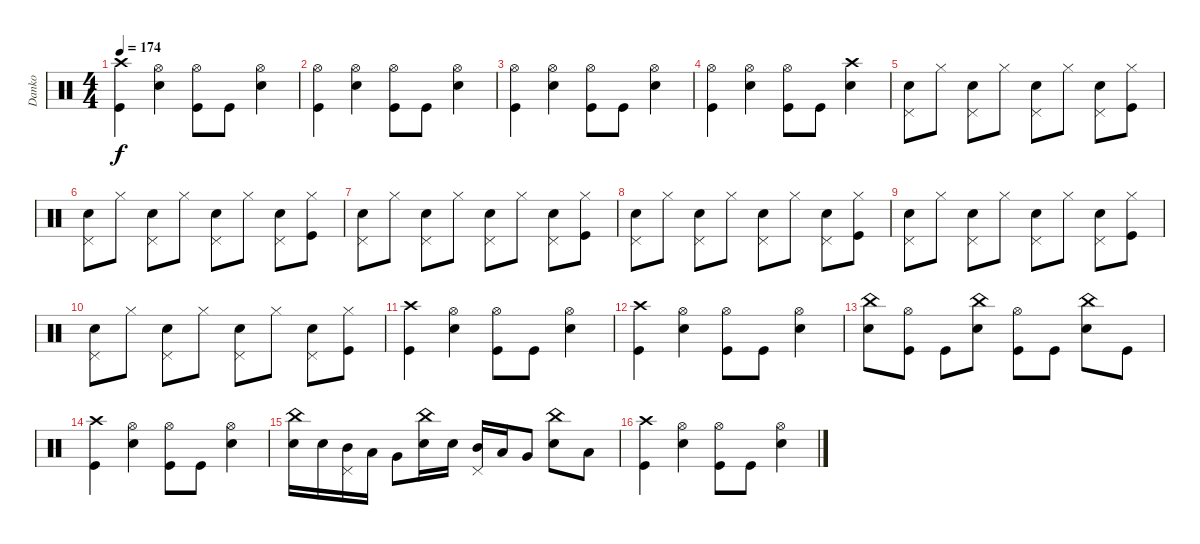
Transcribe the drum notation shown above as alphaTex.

\track ("Danko" "Danko") {instrument percussion}
\staff {score}
\articulation defaults
\ts (4 4)
\tempo 174
\clef neutral
\ks c
("Crash high (hit)" "Kick (hit)").4{dy f} ("Hi-Hat (open)" "Snare (hit) 2").4 ("Hi-Hat (open)" "Kick (hit)").8 "Kick (hit)".8 ("Hi-Hat (open)" "Snare (hit) 2").4 |
("Hi-Hat (open)" "Kick (hit)").4 ("Hi-Hat (open)" "Snare (hit) 2").4 ("Hi-Hat (open)" "Kick (hit)").8 "Kick (hit)".8 ("Hi-Hat (open)" "Snare (hit) 2").4 |
("Hi-Hat (open)" "Kick (hit)").4 ("Hi-Hat (open)" "Snare (hit) 2").4 ("Hi-Hat (open)" "Kick (hit)").8 "Kick (hit)".8 ("Hi-Hat (open)" "Snare (hit) 2").4 |
("Hi-Hat (open)" "Kick (hit)").4 ("Hi-Hat (open)" "Snare (hit) 2").4 ("Hi-Hat (open)" "Kick (hit)").8 "Kick (hit)".8 ("Crash high (hit)" "Snare (hit) 2").4 |
("Pedal Hi-Hat (hit)" "Snare (hit) 2").8 "Hi-Hat (closed)".8 ("Pedal Hi-Hat (hit)" "Snare (hit) 2").8 "Hi-Hat (closed)".8 ("Pedal Hi-Hat (hit)" "Snare (hit) 2").8 "Hi-Hat (closed)".8 ("Pedal Hi-Hat (hit)" "Snare (hit) 2").8 ("Hi-Hat (closed)" "Kick (hit)").8 |
("Pedal Hi-Hat (hit)" "Snare (hit) 2").8 "Hi-Hat (closed)".8 ("Pedal Hi-Hat (hit)" "Snare (hit) 2").8 "Hi-Hat (closed)".8 ("Pedal Hi-Hat (hit)" "Snare (hit) 2").8 "Hi-Hat (closed)".8 ("Pedal Hi-Hat (hit)" "Snare (hit) 2").8 ("Hi-Hat (closed)" "Kick (hit)").8 |
("Pedal Hi-Hat (hit)" "Snare (hit) 2").8 "Hi-Hat (closed)".8 ("Pedal Hi-Hat (hit)" "Snare (hit) 2").8 "Hi-Hat (closed)".8 ("Pedal Hi-Hat (hit)" "Snare (hit) 2").8 "Hi-Hat (closed)".8 ("Pedal Hi-Hat (hit)" "Snare (hit) 2").8 ("Hi-Hat (closed)" "Kick (hit)").8 |
("Pedal Hi-Hat (hit)" "Snare (hit) 2").8 "Hi-Hat (closed)".8 ("Pedal Hi-Hat (hit)" "Snare (hit) 2").8 "Hi-Hat (closed)".8 ("Pedal Hi-Hat (hit)" "Snare (hit) 2").8 "Hi-Hat (closed)".8 ("Pedal Hi-Hat (hit)" "Snare (hit) 2").8 ("Hi-Hat (closed)" "Kick (hit)").8 |
("Pedal Hi-Hat (hit)" "Snare (hit) 2").8 "Hi-Hat (closed)".8 ("Pedal Hi-Hat (hit)" "Snare (hit) 2").8 "Hi-Hat (closed)".8 ("Pedal Hi-Hat (hit)" "Snare (hit) 2").8 "Hi-Hat (closed)".8 ("Pedal Hi-Hat (hit)" "Snare (hit) 2").8 ("Hi-Hat (closed)" "Kick (hit)").8 |
("Pedal Hi-Hat (hit)" "Snare (hit) 2").8 "Hi-Hat (closed)".8 ("Pedal Hi-Hat (hit)" "Snare (hit) 2").8 "Hi-Hat (closed)".8 ("Pedal Hi-Hat (hit)" "Snare (hit) 2").8 "Hi-Hat (closed)".8 ("Pedal Hi-Hat (hit)" "Snare (hit) 2").8 ("Hi-Hat (closed)" "Kick (hit)").8 |
("Crash high (hit)" "Kick (hit)").4 ("Hi-Hat (open)" "Snare (hit) 2").4 ("Hi-Hat (open)" "Kick (hit)").8 "Kick (hit)".8 ("Hi-Hat (open)" "Snare (hit) 2").4 |
("Crash high (hit)" "Kick (hit)").4 ("Hi-Hat (open)" "Snare (hit) 2").4 ("Hi-Hat (open)" "Kick (hit)").8 "Kick (hit)".8 ("Hi-Hat (open)" "Snare (hit) 2").4 |
("Snare (hit) 2" "China (hit)").8 ("Kick (hit)" "Hi-Hat (open)").8 "Kick (hit)".8 ("Snare (hit) 2" "China (hit)").8 ("Kick (hit)" "Hi-Hat (open)").8 "Kick (hit)".8 ("Snare (hit) 2" "China (hit)").8 "Kick (hit)".8 |
("Crash high (hit)" "Kick (hit)").4 ("Hi-Hat (open)" "Snare (hit) 2").4 ("Hi-Hat (open)" "Kick (hit)").8 "Kick (hit)".8 ("Hi-Hat (open)" "Snare (hit) 2").4 |
("Snare (hit) 2" "China (hit)").16 "Snare (hit) 2".16 ("Pedal Hi-Hat (hit)" "Mid Tom (hit)").16 "Low Tom (hit)".16 "Very Low Tom (hit)".8 ("Snare (hit) 2" "China (hit)").16 "Snare (hit) 2".16 ("Pedal Hi-Hat (hit)" "Mid Tom (hit)").16 "Low Tom (hit)".16 "Very Low Tom (hit)".8 ("Snare (hit) 2" "China (hit)").8 "Low Floor Tom (hit)".8 |
("Crash high (hit)" "Kick (hit)").4 ("Hi-Hat (open)" "Snare (hit) 2").4 ("Hi-Hat (open)" "Kick (hit)").8 "Kick (hit)".8 ("Hi-Hat (open)" "Snare (hit) 2").4
